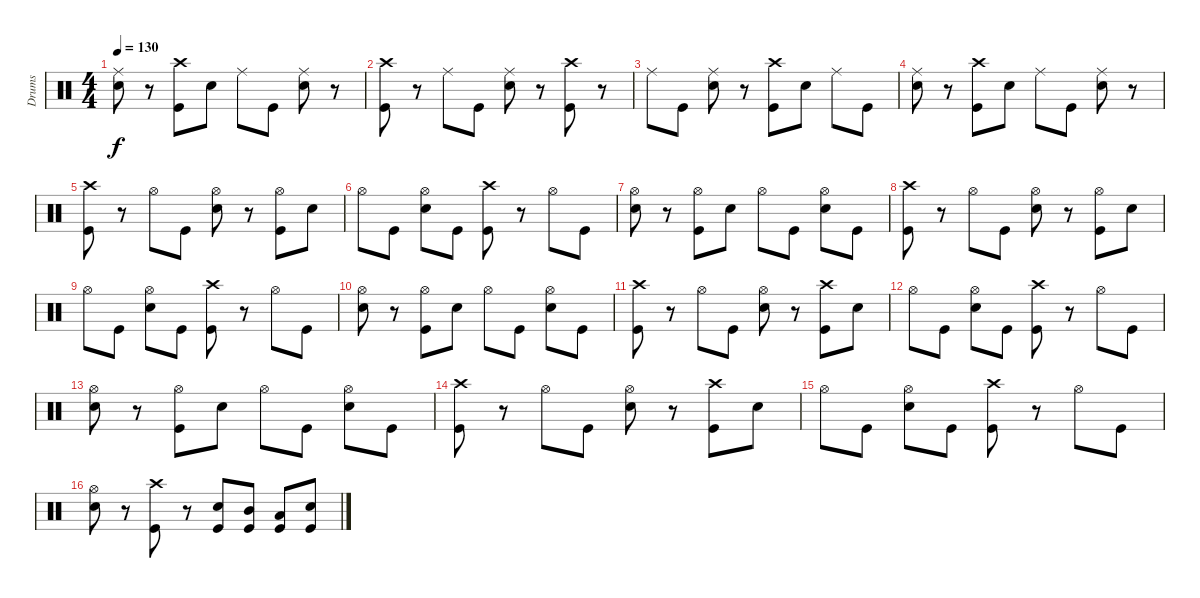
\track ("Drums" "Drums") {instrument percussion}
\staff {score}
\articulation defaults
\ts (4 4)
\tempo 130
\clef neutral
\ks c
("Ride (middle)" "Snare (hit) 2").8{dy f} r.8 ("Crash high (hit)" "Kick (hit)").8 "Snare (hit) 2".8 "Ride (middle)".8 "Kick (hit)".8 ("Ride (middle)" "Snare (hit) 2").8 r.8 |
("Crash high (hit)" "Kick (hit)").8 r.8 "Ride (middle)".8 "Kick (hit)".8 ("Ride (middle)" "Snare (hit) 2").8 r.8 ("Crash high (hit)" "Kick (hit)").8 r.8 |
"Ride (middle)".8 "Kick (hit)".8 ("Ride (middle)" "Snare (hit) 2").8 r.8 ("Crash high (hit)" "Kick (hit)").8 "Snare (hit) 2".8 "Ride (middle)".8 "Kick (hit)".8 |
("Ride (middle)" "Snare (hit) 2").8 r.8 ("Crash high (hit)" "Kick (hit)").8 "Snare (hit) 2".8 "Ride (middle)".8 "Kick (hit)".8 ("Ride (middle)" "Snare (hit) 2").8 r.8 |
("Crash high (hit)" "Kick (hit)").8 r.8 "Hi-Hat (open)".8 "Kick (hit)".8 ("Hi-Hat (open)" "Snare (hit) 2").8 r.8 ("Hi-Hat (open)" "Kick (hit)").8 "Snare (hit) 2".8 |
"Hi-Hat (open)".8 "Kick (hit)".8 ("Hi-Hat (open)" "Snare (hit) 2").8 "Kick (hit)".8 ("Crash high (hit)" "Kick (hit)").8 r.8 "Hi-Hat (open)".8 "Kick (hit)".8 |
("Hi-Hat (open)" "Snare (hit) 2").8 r.8 ("Hi-Hat (open)" "Kick (hit)").8 "Snare (hit) 2".8 "Hi-Hat (open)".8 "Kick (hit)".8 ("Hi-Hat (open)" "Snare (hit) 2").8 "Kick (hit)".8 |
("Crash high (hit)" "Kick (hit)").8 r.8 "Hi-Hat (open)".8 "Kick (hit)".8 ("Hi-Hat (open)" "Snare (hit) 2").8 r.8 ("Hi-Hat (open)" "Kick (hit)").8 "Snare (hit) 2".8 |
"Hi-Hat (open)".8 "Kick (hit)".8 ("Hi-Hat (open)" "Snare (hit) 2").8 "Kick (hit)".8 ("Crash high (hit)" "Kick (hit)").8 r.8 "Hi-Hat (open)".8 "Kick (hit)".8 |
("Hi-Hat (open)" "Snare (hit) 2").8 r.8 ("Hi-Hat (open)" "Kick (hit)").8 "Snare (hit) 2".8 "Hi-Hat (open)".8 "Kick (hit)".8 ("Hi-Hat (open)" "Snare (hit) 2").8 "Kick (hit)".8 |
("Crash high (hit)" "Kick (hit)").8 r.8 "Hi-Hat (open)".8 "Kick (hit)".8 ("Hi-Hat (open)" "Snare (hit) 2").8 r.8 ("Crash high (hit)" "Kick (hit)").8 "Snare (hit) 2".8 |
"Hi-Hat (open)".8 "Kick (hit)".8 ("Hi-Hat (open)" "Snare (hit) 2").8 "Kick (hit)".8 ("Crash high (hit)" "Kick (hit)").8 r.8 "Hi-Hat (open)".8 "Kick (hit)".8 |
("Hi-Hat (open)" "Snare (hit) 2").8 r.8 ("Hi-Hat (open)" "Kick (hit)").8 "Snare (hit) 2".8 "Hi-Hat (open)".8 "Kick (hit)".8 ("Hi-Hat (open)" "Snare (hit) 2").8 "Kick (hit)".8 |
("Crash high (hit)" "Kick (hit)").8 r.8 "Hi-Hat (open)".8 "Kick (hit)".8 ("Hi-Hat (open)" "Snare (hit) 2").8 r.8 ("Crash high (hit)" "Kick (hit)").8 "Snare (hit) 2".8 |
"Hi-Hat (open)".8 "Kick (hit)".8 ("Hi-Hat (open)" "Snare (hit) 2").8 "Kick (hit)".8 ("Crash high (hit)" "Kick (hit)").8 r.8 "Hi-Hat (open)".8 "Kick (hit)".8 |
("Hi-Hat (open)" "Snare (hit) 2").8 r.8 ("Crash high (hit)" "Kick (hit)").8 r.8 ("Snare (hit) 2" "Kick (hit)").8 ("Mid Tom (hit)" "Kick (hit)").8 ("Low Tom (hit)" "Kick (hit)").8 ("Snare (hit) 2" "Kick (hit)").8
